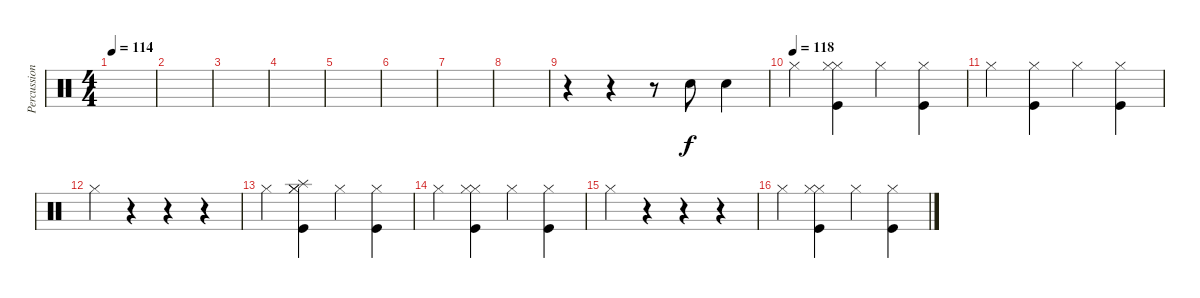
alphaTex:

\track ("Percussion ( Densmore)" "Percussion") {instrument percussion}
\staff {score}
\articulation defaults
\ts (4 4)
\tempo 114
\clef neutral
\ks c
|
|
|
|
|
|
|
|
r.4 r.4 r.8 "Snare (hit) 2".8 "Snare (hit) 2".4 |
\tempo 115
\tempo (118)
"Hi-Hat (closed)".4 ("Hi-Hat (closed)" "Hi-Hat (closed)" "Kick (hit)").4 "Hi-Hat (closed)".4 ("Hi-Hat (closed)" "Kick (hit)").4 |
"Hi-Hat (closed)".4 ("Hi-Hat (closed)" "Kick (hit)").4 "Hi-Hat (closed)".4 ("Hi-Hat (closed)" "Kick (hit)").4 |
"Hi-Hat (closed)".4 r.4 r.4 r.4 |
"Hi-Hat (closed)".4 ("Hi-Hat (closed)" "Hi-Hat (closed)" "Kick (hit)" "Splash (hit)").4 "Hi-Hat (closed)".4 ("Hi-Hat (closed)" "Kick (hit)").4 |
"Hi-Hat (closed)".4 ("Hi-Hat (closed)" "Hi-Hat (closed)" "Kick (hit)").4 "Hi-Hat (closed)".4 ("Hi-Hat (closed)" "Kick (hit)").4 |
"Hi-Hat (closed)".4 r.4 r.4 r.4 |
"Hi-Hat (closed)".4 ("Hi-Hat (closed)" "Hi-Hat (closed)" "Kick (hit)").4 "Hi-Hat (closed)".4 ("Hi-Hat (closed)" "Kick (hit)").4
